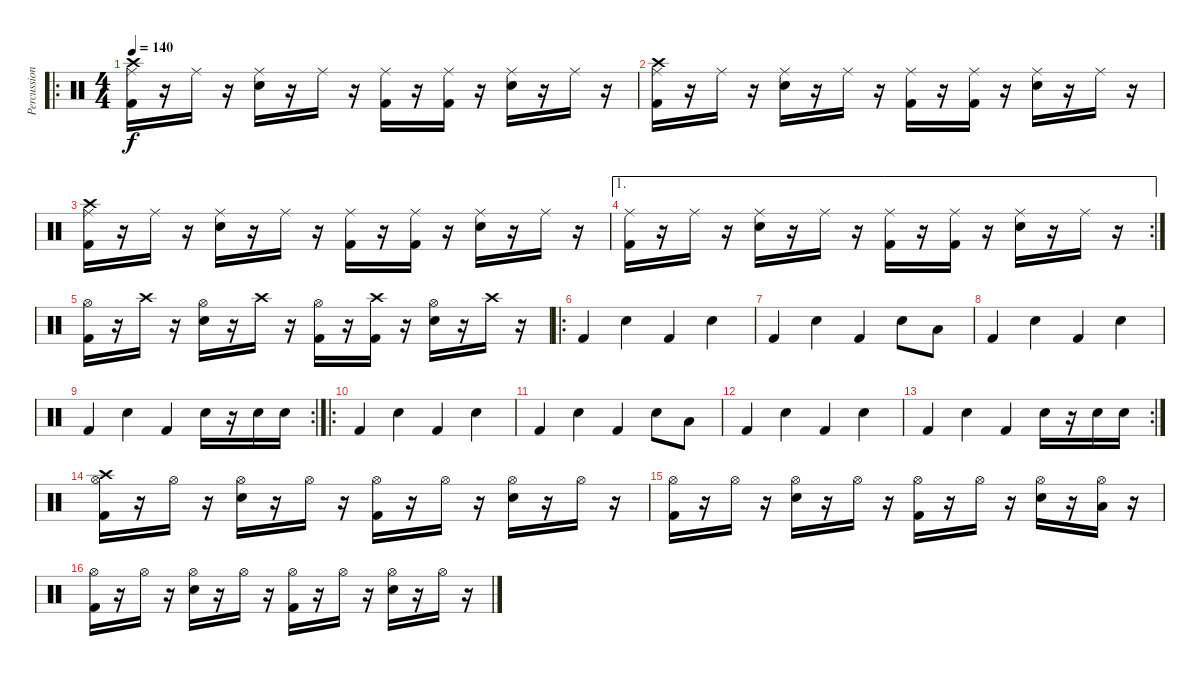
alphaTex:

\track ("Percussion" "Percussion") {instrument percussion}
\staff {score}
\articulation defaults
\ro
\ts (4 4)
\tempo 140
\clef neutral
\ks c
("Ride (middle)" "Crash high (hit)" "Kick (hit) 2").16{dy f} r.16 "Ride (middle)".16 r.16 ("Ride (middle)" "Electric Snare (hit)").16 r.16 "Ride (middle)".16 r.16 ("Ride (middle)" "Kick (hit) 2").16 r.16 ("Ride (middle)" "Kick (hit) 2").16 r.16 ("Ride (middle)" "Electric Snare (hit)").16 r.16 "Ride (middle)".16 r.16 |
("Ride (middle)" "Crash high (hit)" "Kick (hit) 2").16 r.16 "Ride (middle)".16 r.16 ("Ride (middle)" "Electric Snare (hit)").16 r.16 "Ride (middle)".16 r.16 ("Ride (middle)" "Kick (hit) 2").16 r.16 ("Ride (middle)" "Kick (hit) 2").16 r.16 ("Ride (middle)" "Electric Snare (hit)").16 r.16 "Ride (middle)".16 r.16 |
("Ride (middle)" "Crash high (hit)" "Kick (hit) 2").16 r.16 "Ride (middle)".16 r.16 ("Ride (middle)" "Electric Snare (hit)").16 r.16 "Ride (middle)".16 r.16 ("Ride (middle)" "Kick (hit) 2").16 r.16 ("Ride (middle)" "Kick (hit) 2").16 r.16 ("Ride (middle)" "Electric Snare (hit)").16 r.16 "Ride (middle)".16 r.16 |
\ae 1
\rc 2
("Ride (middle)" "Kick (hit) 2").16 r.16 "Ride (middle)".16 r.16 ("Ride (middle)" "Electric Snare (hit)").16 r.16 "Ride (middle)".16 r.16 ("Ride (middle)" "Kick (hit) 2").16 r.16 ("Ride (middle)" "Kick (hit) 2").16 r.16 ("Ride (middle)" "Electric Snare (hit)").16 r.16 "Ride (middle)".16 r.16 |
("Hi-Hat (open)" "Kick (hit) 2").16 r.16 "Crash high (hit)".16 r.16 ("Hi-Hat (open)" "Electric Snare (hit)").16 r.16 "Crash high (hit)".16 r.16 ("Hi-Hat (open)" "Kick (hit) 2").16 r.16 ("Crash high (hit)" "Kick (hit) 2").16 r.16 ("Hi-Hat (open)" "Electric Snare (hit)").16 r.16 "Crash high (hit)".16 r.16 |
\ro "Kick (hit) 2".4 "Electric Snare (hit)".4 "Kick (hit) 2".4 "Electric Snare (hit)".4
|
"Kick (hit) 2".4 "Electric Snare (hit)".4 "Kick (hit) 2".4 "Electric Snare (hit)".8 "Low Floor Tom (hit)".8 |
"Kick (hit) 2".4 "Electric Snare (hit)".4 "Kick (hit) 2".4 "Electric Snare (hit)".4 |
\rc 2 "Kick (hit) 2".4 "Electric Snare (hit)".4 "Kick (hit) 2".4 "Electric Snare (hit)".16
r.16 "Electric Snare (hit)".16 "Electric Snare (hit)".16 |
\ro "Kick (hit) 2".4 "Electric Snare (hit)".4 "Kick (hit) 2".4 "Electric Snare (hit)".4
|
"Kick (hit) 2".4 "Electric Snare (hit)".4 "Kick (hit) 2".4 "Electric Snare (hit)".8 "Low Floor Tom (hit)".8 |
"Kick (hit) 2".4 "Electric Snare (hit)".4 "Kick (hit) 2".4 "Electric Snare (hit)".4 |
\rc 2 "Kick (hit) 2".4 "Electric Snare (hit)".4 "Kick (hit) 2".4 "Electric Snare (hit)".16
r.16 "Electric Snare (hit)".16 "Electric Snare (hit)".16 |
("Hi-Hat (open)" "Crash high (hit)" "Kick (hit) 2").16 r.16 "Hi-Hat (open)".16 r.16 ("Hi-Hat (open)" "Electric Snare (hit)").16 r.16 "Hi-Hat (open)".16 r.16 ("Hi-Hat (open)" "Kick (hit) 2").16 r.16 "Hi-Hat (open)".16 r.16 ("Hi-Hat (open)" "Electric Snare (hit)").16 r.16 "Hi-Hat (open)".16 r.16 |
("Hi-Hat (open)" "Kick (hit) 2").16 r.16 "Hi-Hat (open)".16 r.16 ("Hi-Hat (open)" "Electric Snare (hit)").16 r.16 "Hi-Hat (open)".16 r.16 ("Hi-Hat (open)" "Kick (hit) 2").16 r.16 "Hi-Hat (open)".16 r.16 ("Hi-Hat (open)" "Electric Snare (hit)").16 r.16 ("Hi-Hat (open)" "Low Floor Tom (hit)").16 r.16 |
("Hi-Hat (open)" "Kick (hit) 2").16 r.16 "Hi-Hat (open)".16 r.16 ("Hi-Hat (open)" "Electric Snare (hit)").16 r.16 "Hi-Hat (open)".16 r.16 ("Hi-Hat (open)" "Kick (hit) 2").16 r.16 "Hi-Hat (open)".16 r.16 ("Hi-Hat (open)" "Electric Snare (hit)").16 r.16 "Hi-Hat (open)".16 r.16
